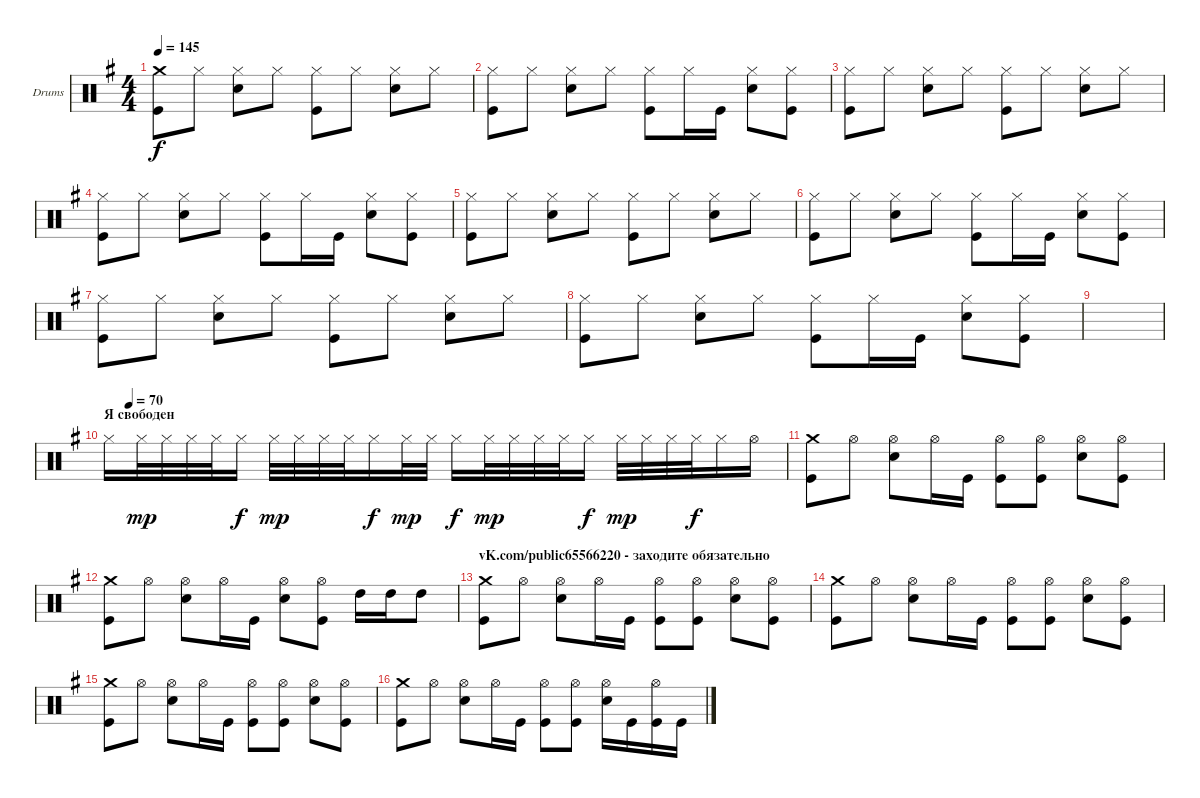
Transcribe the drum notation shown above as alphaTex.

\bracketExtendMode groupsimilarinstruments
\firstSystemTrackNameOrientation horizontal
\otherSystemsTrackNameOrientation horizontal
\track ("Александр Манякин" "Drums") {instrument percussion}
\staff {score}
\articulation defaults
\ts (4 4)
\tempo 145
\clef neutral
\ks eminor
("Kick (hit)" "Crash medium (hit)").8{dy f} "Hi-Hat (closed)".8 ("Hi-Hat (closed)" "Snare (hit) 2").8 "Hi-Hat (closed)".8 ("Hi-Hat (closed)" "Kick (hit)").8 "Hi-Hat (closed)".8 ("Hi-Hat (closed)" "Snare (hit) 2").8 "Hi-Hat (closed)".8 |
("Kick (hit)" "Hi-Hat (closed)").8 "Hi-Hat (closed)".8 ("Hi-Hat (closed)" "Snare (hit) 2").8 "Hi-Hat (closed)".8 ("Hi-Hat (closed)" "Kick (hit)").8 "Hi-Hat (closed)".16 "Kick (hit)".16 ("Hi-Hat (closed)" "Snare (hit) 2").8 ("Hi-Hat (closed)" "Kick (hit)").8 |
("Kick (hit)" "Hi-Hat (closed)").8 "Hi-Hat (closed)".8 ("Hi-Hat (closed)" "Snare (hit) 2").8 "Hi-Hat (closed)".8 ("Hi-Hat (closed)" "Kick (hit)").8 "Hi-Hat (closed)".8 ("Hi-Hat (closed)" "Snare (hit) 2").8 "Hi-Hat (closed)".8 |
("Kick (hit)" "Hi-Hat (closed)").8 "Hi-Hat (closed)".8 ("Hi-Hat (closed)" "Snare (hit) 2").8 "Hi-Hat (closed)".8 ("Hi-Hat (closed)" "Kick (hit)").8 "Hi-Hat (closed)".16 "Kick (hit)".16 ("Hi-Hat (closed)" "Snare (hit) 2").8 ("Hi-Hat (closed)" "Kick (hit)").8 |
("Kick (hit)" "Hi-Hat (closed)").8 "Hi-Hat (closed)".8 ("Hi-Hat (closed)" "Snare (hit) 2").8 "Hi-Hat (closed)".8 ("Hi-Hat (closed)" "Kick (hit)").8 "Hi-Hat (closed)".8 ("Hi-Hat (closed)" "Snare (hit) 2").8 "Hi-Hat (closed)".8 |
("Kick (hit)" "Hi-Hat (closed)").8 "Hi-Hat (closed)".8 ("Hi-Hat (closed)" "Snare (hit) 2").8 "Hi-Hat (closed)".8 ("Hi-Hat (closed)" "Kick (hit)").8 "Hi-Hat (closed)".16 "Kick (hit)".16 ("Hi-Hat (closed)" "Snare (hit) 2").8 ("Hi-Hat (closed)" "Kick (hit)").8 |
("Kick (hit)" "Hi-Hat (closed)").8 "Hi-Hat (closed)".8 ("Hi-Hat (closed)" "Snare (hit) 2").8 "Hi-Hat (closed)".8 ("Hi-Hat (closed)" "Kick (hit)").8 "Hi-Hat (closed)".8 ("Hi-Hat (closed)" "Snare (hit) 2").8 "Hi-Hat (closed)".8 |
("Kick (hit)" "Hi-Hat (closed)").8 "Hi-Hat (closed)".8 ("Hi-Hat (closed)" "Snare (hit) 2").8 "Hi-Hat (closed)".8 ("Hi-Hat (closed)" "Kick (hit)").8 "Hi-Hat (closed)".16 "Kick (hit)".16 ("Hi-Hat (closed)" "Snare (hit) 2").8 ("Hi-Hat (closed)" "Kick (hit)").8 |
|
\section ("" "Я свободен")
\tempo (70 0.03125)
"Hi-Hat (closed)".16 "Hi-Hat (closed)".32{dy mp} "Hi-Hat (closed)".32 "Hi-Hat (closed)".32 "Hi-Hat (closed)".32 "Hi-Hat (closed)".16{dy f} "Hi-Hat (closed)".32{dy mp} "Hi-Hat (closed)".32 "Hi-Hat (closed)".32 "Hi-Hat (closed)".32 "Hi-Hat (closed)".16{dy f} "Hi-Hat (closed)".32{dy mp} "Hi-Hat (closed)".32 "Hi-Hat (closed)".16{dy f} "Hi-Hat (closed)".32{dy mp} "Hi-Hat (closed)".32 "Hi-Hat (closed)".32 "Hi-Hat (closed)".32 "Hi-Hat (closed)".16{dy f} "Hi-Hat (closed)".32{dy mp} "Hi-Hat (closed)".32 "Hi-Hat (closed)".32 "Hi-Hat (closed)".32{dy f} "Hi-Hat (closed)".16 "Hi-Hat (open)".16 |
("Kick (hit)" "Crash medium (hit)").8 "Hi-Hat (open)".8 ("Snare (hit) 2" "Hi-Hat (open)").8 "Hi-Hat (open)".16 "Kick (hit)".16 ("Hi-Hat (open)" "Kick (hit)").8 ("Hi-Hat (open)" "Kick (hit)").8 ("Hi-Hat (open)" "Snare (hit) 2").8 ("Hi-Hat (open)" "Kick (hit)").8 |
("Kick (hit)" "Crash medium (hit)").8 "Hi-Hat (open)".8 ("Snare (hit) 2" "Hi-Hat (open)").8 "Hi-Hat (open)".16 "Kick (hit)".16 ("Hi-Hat (open)" "Snare (hit) 2").8 ("Hi-Hat (open)" "Kick (hit)").8 "High Tom (hit)".16 "High Tom (hit)".16 "High Tom (hit)".8 |
\section ("" "vK.com/public65566220 - заходите обязательно")
("Kick (hit)" "Crash medium (hit)").8 "Hi-Hat (open)".8 ("Snare (hit) 2" "Hi-Hat (open)").8 "Hi-Hat (open)".16 "Kick (hit)".16 ("Hi-Hat (open)" "Kick (hit)").8 ("Hi-Hat (open)" "Kick (hit)").8 ("Hi-Hat (open)" "Snare (hit) 2").8 ("Hi-Hat (open)" "Kick (hit)").8 |
("Kick (hit)" "Crash medium (hit)").8 "Hi-Hat (open)".8 ("Snare (hit) 2" "Hi-Hat (open)").8 "Hi-Hat (open)".16 "Kick (hit)".16 ("Hi-Hat (open)" "Kick (hit)").8 ("Hi-Hat (open)" "Kick (hit)").8 ("Hi-Hat (open)" "Snare (hit) 2").8 ("Hi-Hat (open)" "Kick (hit)").8 |
("Kick (hit)" "Crash medium (hit)").8 "Hi-Hat (open)".8 ("Snare (hit) 2" "Hi-Hat (open)").8 "Hi-Hat (open)".16 "Kick (hit)".16 ("Hi-Hat (open)" "Kick (hit)").8 ("Hi-Hat (open)" "Kick (hit)").8 ("Hi-Hat (open)" "Snare (hit) 2").8 ("Hi-Hat (open)" "Kick (hit)").8 |
("Kick (hit)" "Crash medium (hit)").8 "Hi-Hat (open)".8 ("Snare (hit) 2" "Hi-Hat (open)").8 "Hi-Hat (open)".16 "Kick (hit)".16 ("Hi-Hat (open)" "Kick (hit)").8 ("Hi-Hat (open)" "Kick (hit)").8 ("Hi-Hat (open)" "Snare (hit) 2").16 "Kick (hit)".16 ("Hi-Hat (open)" "Kick (hit)").16 "Kick (hit)".16
